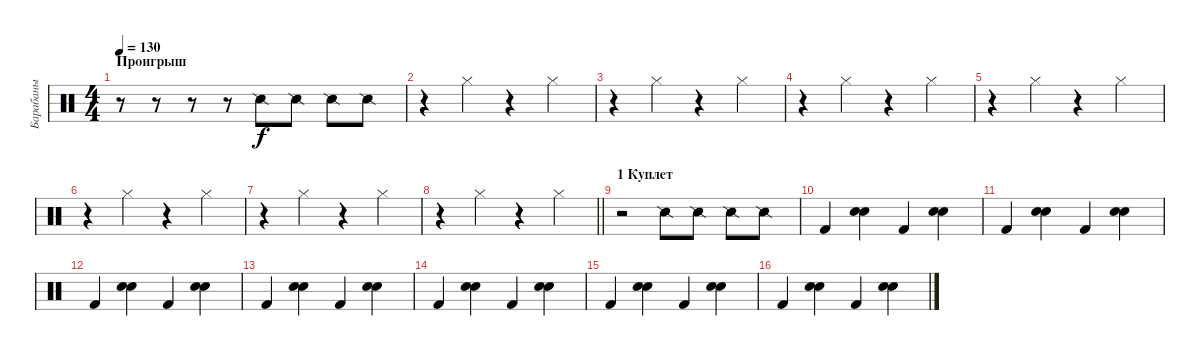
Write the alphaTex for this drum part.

\track ("Барабаны" "Барабаны") {instrument percussion}
\staff {score}
\articulation defaults
\ts (4 4)
\section ("" "Проигрыш")
\tempo 130
\clef neutral
\ks c
r.8{dy f} r.8 r.8 r.8 "Snare (side stick) 2".8 "Snare (side stick) 2".8 "Snare (side stick) 2".8 "Snare (side stick) 2".8 |
r.4 "Hi-Hat (closed)".4 r.4 "Hi-Hat (closed)".4 |
r.4 "Hi-Hat (closed)".4 r.4 "Hi-Hat (closed)".4 |
r.4 "Hi-Hat (closed)".4 r.4 "Hi-Hat (closed)".4 |
r.4 "Hi-Hat (closed)".4 r.4 "Hi-Hat (closed)".4 |
r.4 "Hi-Hat (closed)".4 r.4 "Hi-Hat (closed)".4 |
r.4 "Hi-Hat (closed)".4 r.4 "Hi-Hat (closed)".4 |
\barLineRight lightlight
r.4 "Hi-Hat (closed)".4 r.4 "Hi-Hat (closed)".4 |
\section ("" "1 Куплет")
r.2 "Snare (side stick) 2".8 "Snare (side stick) 2".8 "Snare (side stick) 2".8 "Snare (side stick) 2".8 |
"Kick (hit) 2".4 ("Snare (hit) 2" "Electric Snare (hit)").4 "Kick (hit) 2".4 ("Snare (hit) 2" "Electric Snare (hit)").4 |
"Kick (hit) 2".4 ("Snare (hit) 2" "Electric Snare (hit)").4 "Kick (hit) 2".4 ("Snare (hit) 2" "Electric Snare (hit)").4 |
"Kick (hit) 2".4 ("Snare (hit) 2" "Electric Snare (hit)").4 "Kick (hit) 2".4 ("Snare (hit) 2" "Electric Snare (hit)").4 |
"Kick (hit) 2".4 ("Snare (hit) 2" "Electric Snare (hit)").4 "Kick (hit) 2".4 ("Snare (hit) 2" "Electric Snare (hit)").4 |
"Kick (hit) 2".4 ("Snare (hit) 2" "Electric Snare (hit)").4 "Kick (hit) 2".4 ("Snare (hit) 2" "Electric Snare (hit)").4 |
"Kick (hit) 2".4 ("Snare (hit) 2" "Electric Snare (hit)").4 "Kick (hit) 2".4 ("Snare (hit) 2" "Electric Snare (hit)").4 |
"Kick (hit) 2".4 ("Snare (hit) 2" "Electric Snare (hit)").4 "Kick (hit) 2".4 ("Snare (hit) 2" "Electric Snare (hit)").4
